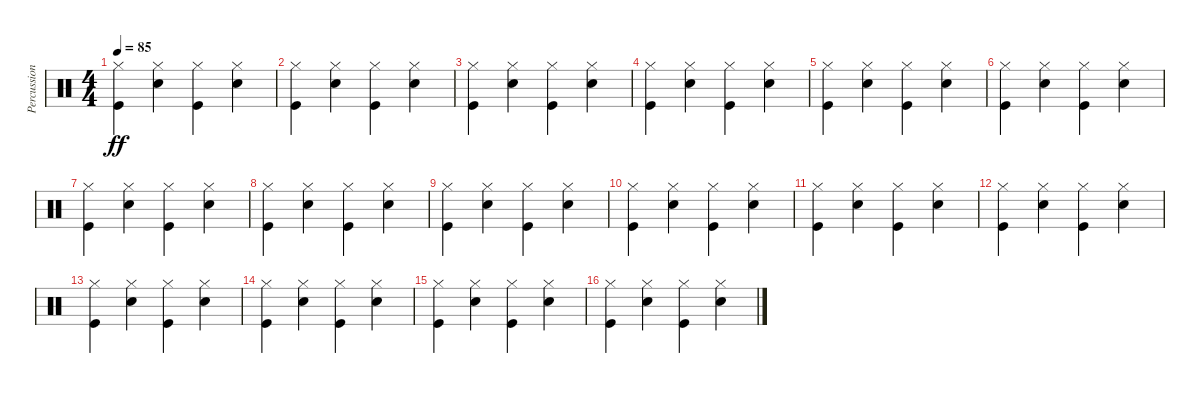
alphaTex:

\track ("Percussion" "Percussion") {instrument percussion}
\staff {score}
\articulation defaults
\ts (4 4)
\tempo 85
\clef neutral
\ks c
("Hi-Hat (closed)" "Kick (hit)").4{dy ff} ("Hi-Hat (closed)" "Snare (hit) 2").4 ("Hi-Hat (closed)" "Kick (hit)").4 ("Hi-Hat (closed)" "Snare (hit) 2").4 |
("Hi-Hat (closed)" "Kick (hit)").4 ("Hi-Hat (closed)" "Snare (hit) 2").4 ("Hi-Hat (closed)" "Kick (hit)").4 ("Hi-Hat (closed)" "Snare (hit) 2").4 |
("Hi-Hat (closed)" "Kick (hit)").4 ("Hi-Hat (closed)" "Snare (hit) 2").4 ("Hi-Hat (closed)" "Kick (hit)").4 ("Hi-Hat (closed)" "Snare (hit) 2").4 |
("Hi-Hat (closed)" "Kick (hit)").4 ("Hi-Hat (closed)" "Snare (hit) 2").4 ("Hi-Hat (closed)" "Kick (hit)").4 ("Hi-Hat (closed)" "Snare (hit) 2").4 |
("Hi-Hat (closed)" "Kick (hit)").4 ("Hi-Hat (closed)" "Snare (hit) 2").4 ("Hi-Hat (closed)" "Kick (hit)").4 ("Hi-Hat (closed)" "Snare (hit) 2").4 |
("Hi-Hat (closed)" "Kick (hit)").4 ("Hi-Hat (closed)" "Snare (hit) 2").4 ("Hi-Hat (closed)" "Kick (hit)").4 ("Hi-Hat (closed)" "Snare (hit) 2").4 |
("Hi-Hat (closed)" "Kick (hit)").4 ("Hi-Hat (closed)" "Snare (hit) 2").4 ("Hi-Hat (closed)" "Kick (hit)").4 ("Hi-Hat (closed)" "Snare (hit) 2").4 |
("Hi-Hat (closed)" "Kick (hit)").4 ("Hi-Hat (closed)" "Snare (hit) 2").4 ("Hi-Hat (closed)" "Kick (hit)").4 ("Hi-Hat (closed)" "Snare (hit) 2").4 |
("Hi-Hat (closed)" "Kick (hit)").4 ("Hi-Hat (closed)" "Snare (hit) 2").4 ("Hi-Hat (closed)" "Kick (hit)").4 ("Hi-Hat (closed)" "Snare (hit) 2").4 |
("Hi-Hat (closed)" "Kick (hit)").4 ("Hi-Hat (closed)" "Snare (hit) 2").4 ("Hi-Hat (closed)" "Kick (hit)").4 ("Hi-Hat (closed)" "Snare (hit) 2").4 |
("Hi-Hat (closed)" "Kick (hit)").4 ("Hi-Hat (closed)" "Snare (hit) 2").4 ("Hi-Hat (closed)" "Kick (hit)").4 ("Hi-Hat (closed)" "Snare (hit) 2").4 |
("Hi-Hat (closed)" "Kick (hit)").4 ("Hi-Hat (closed)" "Snare (hit) 2").4 ("Hi-Hat (closed)" "Kick (hit)").4 ("Hi-Hat (closed)" "Snare (hit) 2").4 |
("Hi-Hat (closed)" "Kick (hit)").4 ("Hi-Hat (closed)" "Snare (hit) 2").4 ("Hi-Hat (closed)" "Kick (hit)").4 ("Hi-Hat (closed)" "Snare (hit) 2").4 |
("Hi-Hat (closed)" "Kick (hit)").4 ("Hi-Hat (closed)" "Snare (hit) 2").4 ("Hi-Hat (closed)" "Kick (hit)").4 ("Hi-Hat (closed)" "Snare (hit) 2").4 |
("Hi-Hat (closed)" "Kick (hit)").4 ("Hi-Hat (closed)" "Snare (hit) 2").4 ("Hi-Hat (closed)" "Kick (hit)").4 ("Hi-Hat (closed)" "Snare (hit) 2").4 |
("Hi-Hat (closed)" "Kick (hit)").4 ("Hi-Hat (closed)" "Snare (hit) 2").4 ("Hi-Hat (closed)" "Kick (hit)").4 ("Hi-Hat (closed)" "Snare (hit) 2").4
